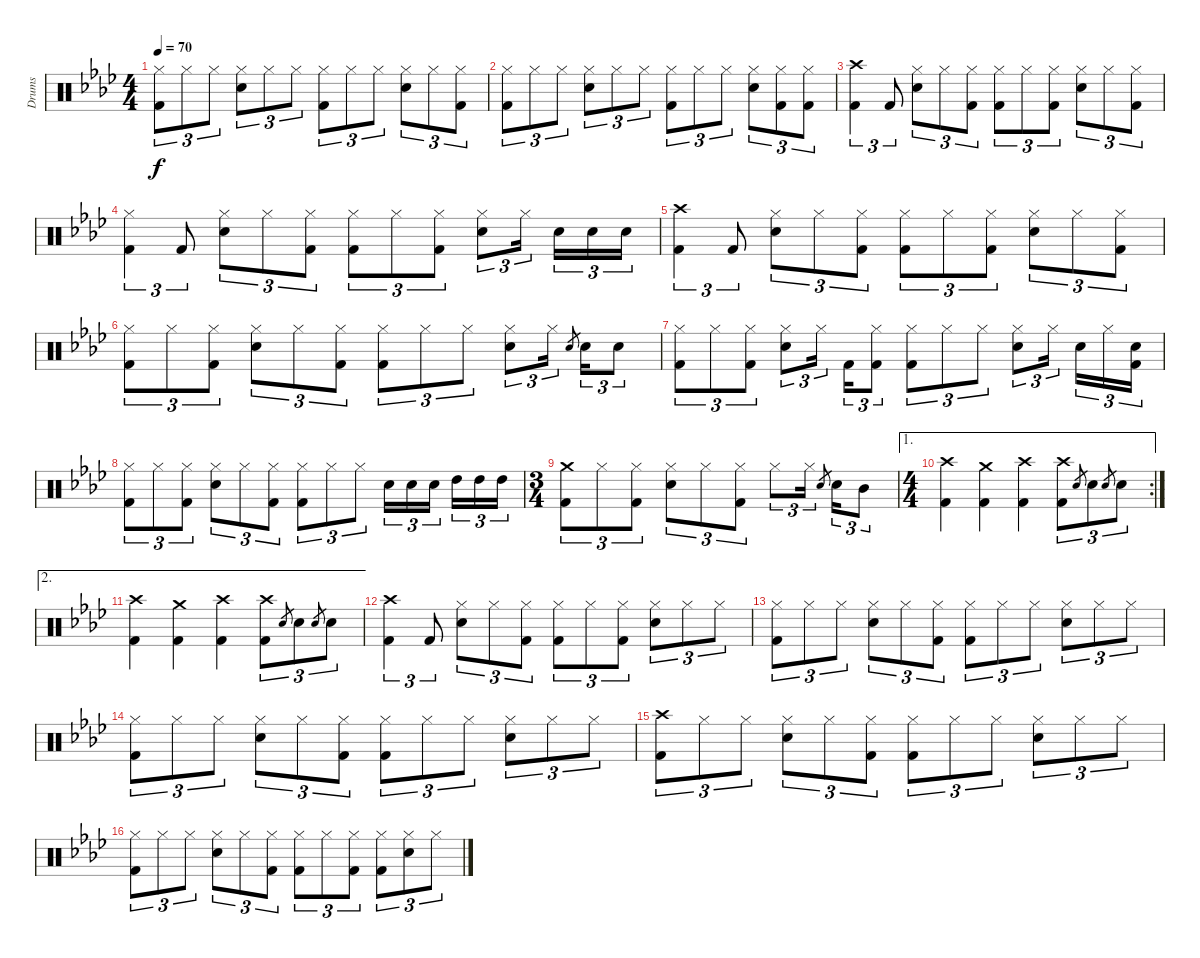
\track ("Drums" "Drums") {instrument percussion}
\staff {score}
\articulation defaults
\ts (4 4)
\tempo 70
\clef neutral
\ks fminor
("Kick (hit) 2" "Hi-Hat (closed)").8{tu (3 2) dy f} "Hi-Hat (closed)".8{tu (3 2)} "Hi-Hat (closed)".8{tu (3 2)} ("Snare (hit) 2" "Hi-Hat (closed)").8{tu (3 2)} "Hi-Hat (closed)".8{tu (3 2)} "Hi-Hat (closed)".8{tu (3 2)} ("Kick (hit) 2" "Hi-Hat (closed)").8{tu (3 2)} "Hi-Hat (closed)".8{tu (3 2)} "Hi-Hat (closed)".8{tu (3 2)} ("Snare (hit) 2" "Hi-Hat (closed)").8{tu (3 2)} "Hi-Hat (closed)".8{tu (3 2)} ("Kick (hit) 2" "Hi-Hat (closed)").8{tu (3 2)} |
("Kick (hit) 2" "Hi-Hat (closed)").8{tu (3 2)} "Hi-Hat (closed)".8{tu (3 2)} "Hi-Hat (closed)".8{tu (3 2)} ("Snare (hit) 2" "Hi-Hat (closed)").8{tu (3 2)} "Hi-Hat (closed)".8{tu (3 2)} "Hi-Hat (closed)".8{tu (3 2)} ("Kick (hit) 2" "Hi-Hat (closed)").8{tu (3 2)} "Hi-Hat (closed)".8{tu (3 2)} "Hi-Hat (closed)".8{tu (3 2)} ("Snare (hit) 2" "Hi-Hat (closed)").8{tu (3 2)} ("Kick (hit) 2" "Hi-Hat (closed)").8{tu (3 2)} ("Kick (hit) 2" "Hi-Hat (closed)").8{tu (3 2)} |
("Kick (hit) 2" "Crash high (hit)").4{tu (3 2)} "Kick (hit) 2".8{tu (3 2)} ("Snare (hit) 2" "Hi-Hat (closed)").8{tu (3 2)} "Hi-Hat (closed)".8{tu (3 2)} ("Kick (hit) 2" "Hi-Hat (closed)").8{tu (3 2)} ("Kick (hit) 2" "Hi-Hat (closed)").8{tu (3 2)} "Hi-Hat (closed)".8{tu (3 2)} ("Kick (hit) 2" "Hi-Hat (closed)").8{tu (3 2)} ("Snare (hit) 2" "Hi-Hat (closed)").8{tu (3 2)} "Hi-Hat (closed)".8{tu (3 2)} ("Kick (hit) 2" "Hi-Hat (closed)").8{tu (3 2)} |
("Kick (hit) 2" "Hi-Hat (closed)").4{tu (3 2)} "Kick (hit) 2".8{tu (3 2)} ("Snare (hit) 2" "Hi-Hat (closed)").8{tu (3 2)} "Hi-Hat (closed)".8{tu (3 2)} ("Kick (hit) 2" "Hi-Hat (closed)").8{tu (3 2)} ("Kick (hit) 2" "Hi-Hat (closed)").8{tu (3 2)} "Hi-Hat (closed)".8{tu (3 2)} ("Kick (hit) 2" "Hi-Hat (closed)").8{tu (3 2)} ("Snare (hit) 2" "Hi-Hat (closed)").8{tu (3 2)} "Hi-Hat (closed)".16{tu (3 2)} "Snare (hit) 2".16{tu (3 2)} "Snare (hit) 2".16{tu (3 2)} "Snare (hit) 2".16{tu (3 2)} |
("Kick (hit) 2" "Crash high (hit)").4{tu (3 2)} "Kick (hit) 2".8{tu (3 2)} ("Snare (hit) 2" "Hi-Hat (closed)").8{tu (3 2)} "Hi-Hat (closed)".8{tu (3 2)} ("Kick (hit) 2" "Hi-Hat (closed)").8{tu (3 2)} ("Kick (hit) 2" "Hi-Hat (closed)").8{tu (3 2)} "Hi-Hat (closed)".8{tu (3 2)} ("Kick (hit) 2" "Hi-Hat (closed)").8{tu (3 2)} ("Snare (hit) 2" "Hi-Hat (closed)").8{tu (3 2)} "Hi-Hat (closed)".8{tu (3 2)} ("Kick (hit) 2" "Hi-Hat (closed)").8{tu (3 2)} |
("Kick (hit) 2" "Hi-Hat (closed)").8{tu (3 2)} "Hi-Hat (closed)".8{tu (3 2)} ("Kick (hit) 2" "Hi-Hat (closed)").8{tu (3 2)} ("Snare (hit) 2" "Hi-Hat (closed)").8{tu (3 2)} "Hi-Hat (closed)".8{tu (3 2)} ("Kick (hit) 2" "Hi-Hat (closed)").8{tu (3 2)} ("Kick (hit) 2" "Hi-Hat (closed)").8{tu (3 2)} "Hi-Hat (closed)".8{tu (3 2)} "Hi-Hat (closed)".8{tu (3 2)} ("Snare (hit) 2" "Hi-Hat (closed)").8{tu (3 2)} "Hi-Hat (closed)".16{tu (3 2)} "Snare (hit) 2".8{gr} "Snare (hit) 2".16{tu (3 2)} "Snare (hit) 2".8{tu (3 2)} |
("Kick (hit) 2" "Hi-Hat (closed)").8{tu (3 2)} "Hi-Hat (closed)".8{tu (3 2)} ("Kick (hit) 2" "Hi-Hat (closed)").8{tu (3 2)} ("Snare (hit) 2" "Hi-Hat (closed)").8{tu (3 2)} "Hi-Hat (closed)".16{tu (3 2)} "Kick (hit) 2".16{tu (3 2)} ("Kick (hit) 2" "Hi-Hat (closed)").8{tu (3 2)} ("Kick (hit) 2" "Hi-Hat (closed)").8{tu (3 2)} "Hi-Hat (closed)".8{tu (3 2)} "Hi-Hat (closed)".8{tu (3 2)} ("Snare (hit) 2" "Hi-Hat (closed)").8{tu (3 2)} "Hi-Hat (closed)".16{tu (3 2)} "Snare (hit) 2".16{tu (3 2)} "Hi-Hat (closed)".16{tu (3 2)} ("Kick (hit) 2" "Snare (hit) 2").16{tu (3 2)} |
("Kick (hit) 2" "Hi-Hat (closed)").8{tu (3 2)} "Hi-Hat (closed)".8{tu (3 2)} ("Kick (hit) 2" "Hi-Hat (closed)").8{tu (3 2)} ("Snare (hit) 2" "Hi-Hat (closed)").8{tu (3 2)} "Hi-Hat (closed)".8{tu (3 2)} ("Kick (hit) 2" "Hi-Hat (closed)").8{tu (3 2)} ("Kick (hit) 2" "Hi-Hat (closed)").8{tu (3 2)} "Hi-Hat (closed)".8{tu (3 2)} "Hi-Hat (closed)".8{tu (3 2)} "Snare (hit) 2".16{tu (3 2)} "Snare (hit) 2".16{tu (3 2)} "Snare (hit) 2".16{tu (3 2)} "High Tom (hit)".16{tu (3 2)} "High Tom (hit)".16{tu (3 2)} "High Tom (hit)".16{tu (3 2)} |
\ts (3 4)
("Kick (hit) 2" "Crash medium (hit)").8{tu (3 2)} "Hi-Hat (closed)".8{tu (3 2)} ("Kick (hit) 2" "Hi-Hat (closed)").8{tu (3 2)} ("Snare (hit) 2" "Hi-Hat (closed)").8{tu (3 2)} "Hi-Hat (closed)".8{tu (3 2)} ("Kick (hit) 2" "Hi-Hat (closed)").8{tu (3 2)} "Hi-Hat (closed)".8{tu (3 2)} "Hi-Hat (closed)".16{tu (3 2)} "Snare (hit) 2".8{gr} "Snare (hit) 2".16{tu (3 2)} "Mid Tom (hit)".8{tu (3 2)} |
\ae 1
\rc 2
\ts (4 4)
("Kick (hit) 2" "Crash high (hit)").4 ("Kick (hit) 2" "Crash medium (hit)").4 ("Kick (hit) 2" "Crash high (hit)").4 ("Kick (hit) 2" "Crash high (hit)").8{tu (3 2)} "Snare (hit) 2".8{gr} "Snare (hit) 2".8{tu (3 2)} "Snare (hit) 2".8{gr} "Snare (hit) 2".8{tu (3 2)} |
\ae 2
("Kick (hit) 2" "Crash high (hit)").4 ("Kick (hit) 2" "Crash medium (hit)").4 ("Kick (hit) 2" "Crash high (hit)").4 ("Kick (hit) 2" "Crash high (hit)").8{tu (3 2)} "Snare (hit) 2".8{gr} "Snare (hit) 2".8{tu (3 2)} "Snare (hit) 2".8{gr} "Snare (hit) 2".8{tu (3 2)} |
("Kick (hit) 2" "Crash high (hit)").4{tu (3 2)} "Kick (hit) 2".8{tu (3 2)} ("Snare (hit) 2" "Hi-Hat (closed)").8{tu (3 2)} "Hi-Hat (closed)".8{tu (3 2)} ("Kick (hit) 2" "Hi-Hat (closed)").8{tu (3 2)} ("Kick (hit) 2" "Hi-Hat (closed)").8{tu (3 2)} "Hi-Hat (closed)".8{tu (3 2)} ("Kick (hit) 2" "Hi-Hat (closed)").8{tu (3 2)} ("Snare (hit) 2" "Hi-Hat (closed)").8{tu (3 2)} "Hi-Hat (closed)".8{tu (3 2)} "Hi-Hat (closed)".8{tu (3 2)} |
("Kick (hit) 2" "Hi-Hat (closed)").8{tu (3 2)} "Hi-Hat (closed)".8{tu (3 2)} "Hi-Hat (closed)".8{tu (3 2)} ("Snare (hit) 2" "Hi-Hat (closed)").8{tu (3 2)} "Hi-Hat (closed)".8{tu (3 2)} ("Kick (hit) 2" "Hi-Hat (closed)").8{tu (3 2)} ("Kick (hit) 2" "Hi-Hat (closed)").8{tu (3 2)} "Hi-Hat (closed)".8{tu (3 2)} "Hi-Hat (closed)".8{tu (3 2)} ("Snare (hit) 2" "Hi-Hat (closed)").8{tu (3 2)} "Hi-Hat (closed)".8{tu (3 2)} "Hi-Hat (closed)".8{tu (3 2)} |
("Kick (hit) 2" "Hi-Hat (closed)").8{tu (3 2)} "Hi-Hat (closed)".8{tu (3 2)} "Hi-Hat (closed)".8{tu (3 2)} ("Snare (hit) 2" "Hi-Hat (closed)").8{tu (3 2)} "Hi-Hat (closed)".8{tu (3 2)} ("Kick (hit) 2" "Hi-Hat (closed)").8{tu (3 2)} ("Kick (hit) 2" "Hi-Hat (closed)").8{tu (3 2)} "Hi-Hat (closed)".8{tu (3 2)} "Hi-Hat (closed)".8{tu (3 2)} ("Snare (hit) 2" "Hi-Hat (closed)").8{tu (3 2)} "Hi-Hat (closed)".8{tu (3 2)} "Hi-Hat (closed)".8{tu (3 2)} |
("Kick (hit) 2" "Crash high (hit)").8{tu (3 2)} "Hi-Hat (closed)".8{tu (3 2)} "Hi-Hat (closed)".8{tu (3 2)} ("Snare (hit) 2" "Hi-Hat (closed)").8{tu (3 2)} "Hi-Hat (closed)".8{tu (3 2)} ("Kick (hit) 2" "Hi-Hat (closed)").8{tu (3 2)} ("Kick (hit) 2" "Hi-Hat (closed)").8{tu (3 2)} "Hi-Hat (closed)".8{tu (3 2)} "Hi-Hat (closed)".8{tu (3 2)} ("Snare (hit) 2" "Hi-Hat (closed)").8{tu (3 2)} "Hi-Hat (closed)".8{tu (3 2)} "Hi-Hat (closed)".8{tu (3 2)} |
("Kick (hit) 2" "Hi-Hat (closed)").8{tu (3 2)} "Hi-Hat (closed)".8{tu (3 2)} "Hi-Hat (closed)".8{tu (3 2)} ("Snare (hit) 2" "Hi-Hat (closed)").8{tu (3 2)} "Hi-Hat (closed)".8{tu (3 2)} ("Kick (hit) 2" "Hi-Hat (closed)").8{tu (3 2)} ("Kick (hit) 2" "Hi-Hat (closed)").8{tu (3 2)} "Hi-Hat (closed)".8{tu (3 2)} ("Kick (hit) 2" "Hi-Hat (closed)").8{tu (3 2)} ("Kick (hit) 2" "Hi-Hat (closed)").8{tu (3 2)} ("Snare (hit) 2" "Hi-Hat (closed)").8{tu (3 2)} "Hi-Hat (closed)".8{tu (3 2)}
